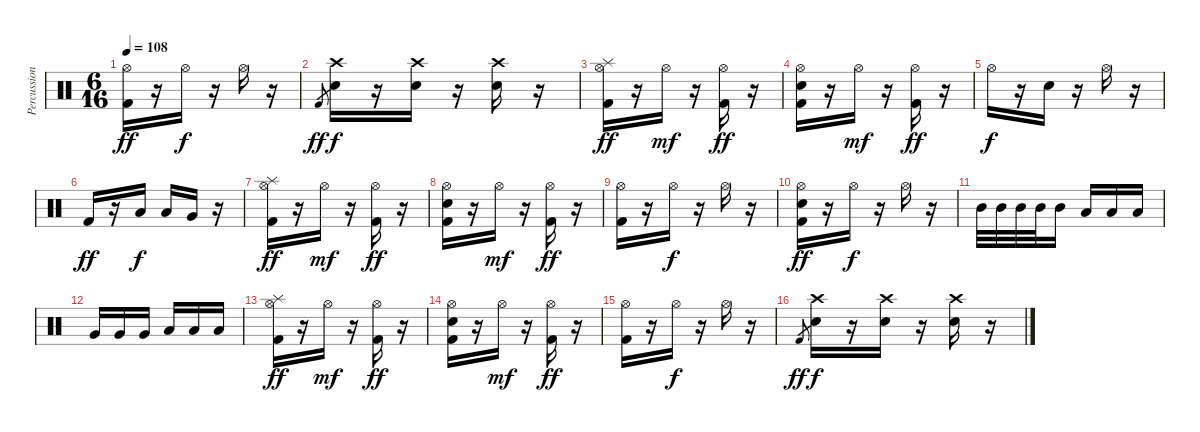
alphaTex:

\track ("Percussion" "Percussion") {instrument percussion}
\staff {score}
\articulation defaults
\ts (6 16)
\tempo 108
\clef neutral
\ks c
("Hi-Hat (open)" "Kick (hit) 2").16{dy ff} r.16 "Hi-Hat (open)".16{dy f} r.16 "Hi-Hat (open)".16 r.16 |
"Kick (hit) 2".8{gr dy ff} ("Crash high (hit)" "Electric Snare (hit)").16{dy f} r.16 ("Crash high (hit)" "Electric Snare (hit)").16 r.16 ("Crash high (hit)" "Electric Snare (hit)").16 r.16 |
("Splash (hit)" "Hi-Hat (open)" "Kick (hit) 2").16{dy ff} r.16 "Hi-Hat (open)".16{dy mf} r.16 ("Hi-Hat (open)" "Kick (hit) 2").16{dy ff} r.16 |
("Hi-Hat (open)" "Electric Snare (hit)" "Kick (hit) 2").16 r.16 "Hi-Hat (open)".16{dy mf} r.16 ("Hi-Hat (open)" "Kick (hit) 2").16{dy ff} r.16 |
"Hi-Hat (open)".16{dy f} r.16 "Electric Snare (hit)".16 r.16 "Hi-Hat (open)".16 r.16 |
"Kick (hit) 2".16{dy ff} r.16 "Low Tom (hit)".16{dy f} "Low Tom (hit)".16 "Very Low Tom (hit)".16 r.16 |
("Splash (hit)" "Hi-Hat (open)" "Kick (hit) 2").16{dy ff} r.16 "Hi-Hat (open)".16{dy mf} r.16 ("Hi-Hat (open)" "Kick (hit) 2").16{dy ff} r.16 |
("Hi-Hat (open)" "Electric Snare (hit)" "Kick (hit) 2").16 r.16 "Hi-Hat (open)".16{dy mf} r.16 ("Hi-Hat (open)" "Kick (hit) 2").16{dy ff} r.16 |
("Hi-Hat (open)" "Kick (hit) 2").16 r.16 "Hi-Hat (open)".16{dy f} r.16 "Hi-Hat (open)".16 r.16 |
("Hi-Hat (open)" "Electric Snare (hit)" "Kick (hit) 2").16{dy ff} r.16 "Hi-Hat (open)".16{dy f} r.16 "Hi-Hat (open)".16 r.16 |
"Mid Tom (hit)".32 "Mid Tom (hit)".32 "Mid Tom (hit)".32 "Mid Tom (hit)".32 "Mid Tom (hit)".16 "Low Tom (hit)".16 "Low Tom (hit)".16 "Low Tom (hit)".16 |
"Very Low Tom (hit)".16 "Very Low Tom (hit)".16 "Very Low Tom (hit)".16 "Low Floor Tom (hit)".16 "Low Floor Tom (hit)".16 "Low Floor Tom (hit)".16 |
("Splash (hit)" "Hi-Hat (open)" "Kick (hit) 2").16{dy ff} r.16 "Hi-Hat (open)".16{dy mf} r.16 ("Hi-Hat (open)" "Kick (hit) 2").16{dy ff} r.16 |
("Hi-Hat (open)" "Electric Snare (hit)" "Kick (hit) 2").16 r.16 "Hi-Hat (open)".16{dy mf} r.16 ("Hi-Hat (open)" "Kick (hit) 2").16{dy ff} r.16 |
("Hi-Hat (open)" "Kick (hit) 2").16 r.16 "Hi-Hat (open)".16{dy f} r.16 "Hi-Hat (open)".16 r.16 |
"Kick (hit) 2".8{gr dy ff} ("Crash high (hit)" "Electric Snare (hit)").16{dy f} r.16 ("Crash high (hit)" "Electric Snare (hit)").16 r.16 ("Crash high (hit)" "Electric Snare (hit)").16 r.16
